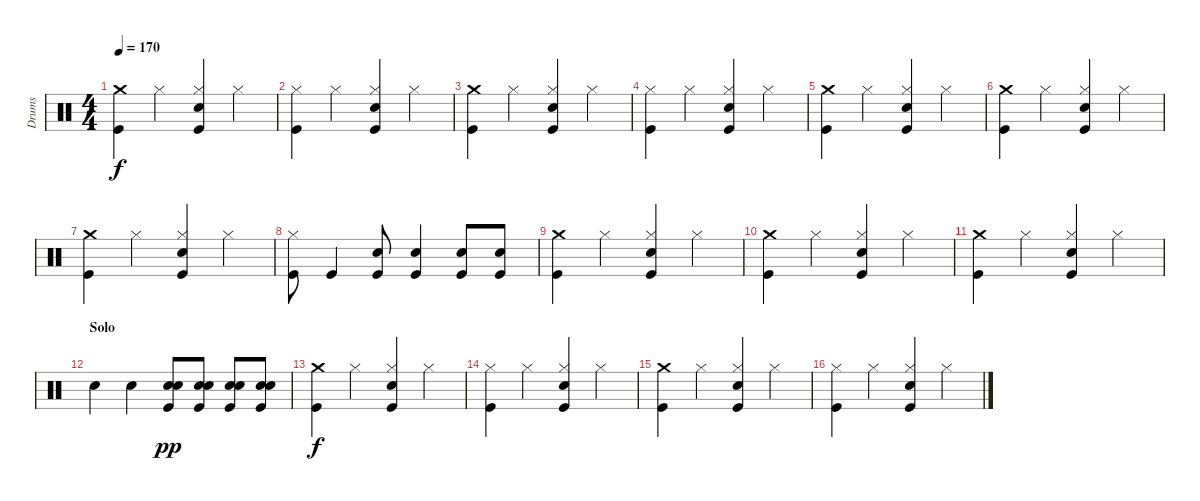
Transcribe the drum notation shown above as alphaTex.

\track ("Drums" "Drums") {instrument percussion}
\staff {score}
\articulation defaults
\ts (4 4)
\tempo 170
\clef neutral
\ks c
("Crash medium (hit)" "Kick (hit)").4{dy f} "Hi-Hat (closed)".4 ("Snare (hit) 2" "Hi-Hat (closed)" "Kick (hit)").4 "Hi-Hat (closed)".4 |
("Hi-Hat (closed)" "Kick (hit)").4 "Hi-Hat (closed)".4 ("Snare (hit) 2" "Hi-Hat (closed)" "Kick (hit)").4 "Hi-Hat (closed)".4 |
("Crash medium (hit)" "Kick (hit)").4 "Hi-Hat (closed)".4 ("Snare (hit) 2" "Hi-Hat (closed)" "Kick (hit)").4 "Hi-Hat (closed)".4 |
("Hi-Hat (closed)" "Kick (hit)").4 "Hi-Hat (closed)".4 ("Snare (hit) 2" "Hi-Hat (closed)" "Kick (hit)").4 "Hi-Hat (closed)".4 |
("Crash medium (hit)" "Kick (hit)").4 "Hi-Hat (closed)".4 ("Snare (hit) 2" "Hi-Hat (closed)" "Kick (hit)").4 "Hi-Hat (closed)".4 |
("Crash medium (hit)" "Kick (hit)").4 "Hi-Hat (closed)".4 ("Snare (hit) 2" "Hi-Hat (closed)" "Kick (hit)").4 "Hi-Hat (closed)".4 |
("Crash medium (hit)" "Kick (hit)").4 "Hi-Hat (closed)".4 ("Snare (hit) 2" "Hi-Hat (closed)" "Kick (hit)").4 "Hi-Hat (closed)".4 |
("Hi-Hat (closed)" "Kick (hit)").8 "Kick (hit)".4 ("Electric Snare (hit)" "Kick (hit)").8 ("Snare (hit) 2" "Kick (hit)").4 ("Electric Snare (hit)" "Kick (hit)").8 ("Electric Snare (hit)" "Kick (hit)").8 |
("Crash medium (hit)" "Kick (hit)").4 "Hi-Hat (closed)".4 ("Snare (hit) 2" "Hi-Hat (closed)" "Kick (hit)").4 "Hi-Hat (closed)".4 |
("Crash medium (hit)" "Kick (hit)").4 "Hi-Hat (closed)".4 ("Snare (hit) 2" "Hi-Hat (closed)" "Kick (hit)").4 "Hi-Hat (closed)".4 |
("Crash medium (hit)" "Kick (hit)").4 "Hi-Hat (closed)".4 ("Snare (hit) 2" "Hi-Hat (closed)" "Kick (hit)").4 "Hi-Hat (closed)".4 |
\section ("" "Solo")
"Snare (hit) 2".4 "Snare (hit) 2".4 ("Electric Snare (hit)" "Snare (hit) 2" "Kick (hit)").8{dy pp} ("Electric Snare (hit)" "Snare (hit) 2" "Kick (hit)").8 ("Electric Snare (hit)" "Snare (hit) 2" "Kick (hit)").8 ("Electric Snare (hit)" "Snare (hit) 2" "Kick (hit)").8 |
("Crash medium (hit)" "Kick (hit)").4{dy f} "Hi-Hat (closed)".4 ("Snare (hit) 2" "Hi-Hat (closed)" "Kick (hit)").4 "Hi-Hat (closed)".4 |
("Hi-Hat (closed)" "Kick (hit)").4 "Hi-Hat (closed)".4 ("Snare (hit) 2" "Hi-Hat (closed)" "Kick (hit)").4 "Hi-Hat (closed)".4 |
("Crash medium (hit)" "Kick (hit)").4 "Hi-Hat (closed)".4 ("Snare (hit) 2" "Hi-Hat (closed)" "Kick (hit)").4 "Hi-Hat (closed)".4 |
("Hi-Hat (closed)" "Kick (hit)").4 "Hi-Hat (closed)".4 ("Snare (hit) 2" "Hi-Hat (closed)" "Kick (hit)").4 "Hi-Hat (closed)".4
